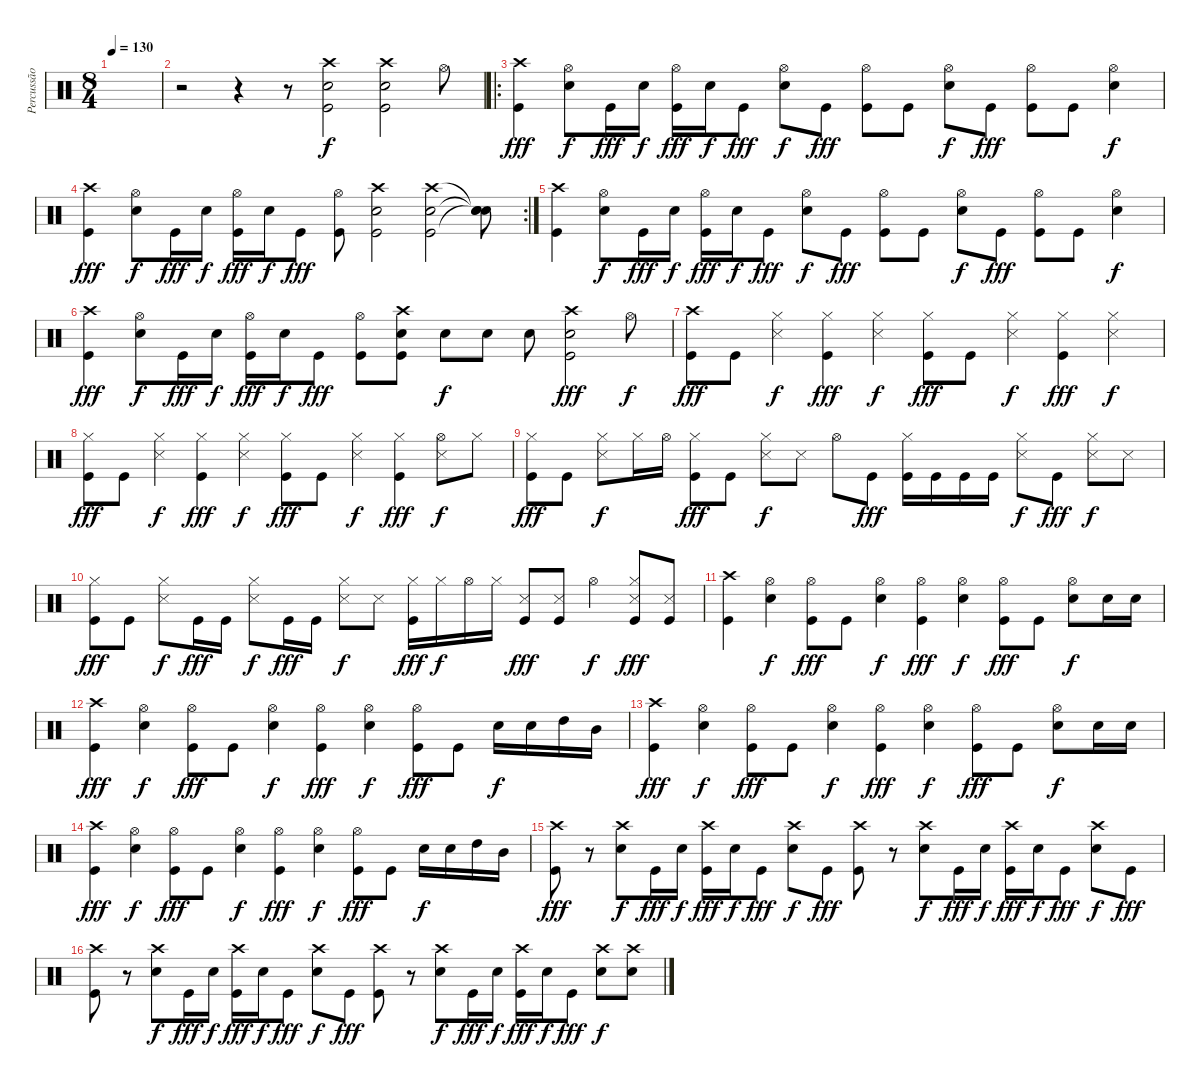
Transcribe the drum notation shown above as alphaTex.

\track ("Percussão" "Percussão") {instrument percussion}
\staff {score}
\articulation defaults
\ts (8 4)
\tempo 130
\clef neutral
\ks c
|
r.2 r.4 r.8 ("Crash high (hit)" "Electric Snare (hit)" "Kick (hit)").2 ("Crash high (hit)" "Electric Snare (hit)" "Kick (hit)").2 "Hi-Hat (open)".8{dy f} |
\ro
("Crash high (hit)" "Kick (hit)").4{dy fff} ("Hi-Hat (open)" "Electric Snare (hit)").8{dy f} "Kick (hit)".16{dy fff} "Electric Snare (hit)".16{dy f} ("Hi-Hat (open)" "Kick (hit)").16{dy fff} "Electric Snare (hit)".16{dy f} "Kick (hit)".8{dy fff} ("Hi-Hat (open)" "Electric Snare (hit)").8{dy f} "Kick (hit)".8{dy fff} ("Hi-Hat (open)" "Kick (hit)").8 "Kick (hit)".8 ("Hi-Hat (open)" "Electric Snare (hit)").8{dy f} "Kick (hit)".8{dy fff} ("Hi-Hat (open)" "Kick (hit)").8 "Kick (hit)".8 ("Hi-Hat (open)" "Electric Snare (hit)").4{dy f} |
\rc 2
("Crash high (hit)" "Kick (hit)").4{dy fff} ("Hi-Hat (open)" "Electric Snare (hit)").8{dy f} "Kick (hit)".16{dy fff} "Electric Snare (hit)".16{dy f} ("Hi-Hat (open)" "Kick (hit)").16{dy fff} "Electric Snare (hit)".16{dy f} "Kick (hit)".8{dy fff} ("Hi-Hat (open)" "Kick (hit)").8 ("Crash high (hit)" "Electric Snare (hit)" "Kick (hit)").2 ("Crash high (hit)" "Electric Snare (hit)" "Kick (hit)").2 ("Snare (hit)"{t} "Snare (hit)"{t} "Snare (hit)"{t}).8 |
("Crash high (hit)" "Kick (hit)").4 ("Hi-Hat (open)" "Electric Snare (hit)").8{dy f} "Kick (hit)".16{dy fff} "Electric Snare (hit)".16{dy f} ("Hi-Hat (open)" "Kick (hit)").16{dy fff} "Electric Snare (hit)".16{dy f} "Kick (hit)".8{dy fff} ("Hi-Hat (open)" "Electric Snare (hit)").8{dy f} "Kick (hit)".8{dy fff} ("Hi-Hat (open)" "Kick (hit)").8 "Kick (hit)".8 ("Hi-Hat (open)" "Electric Snare (hit)").8{dy f} "Kick (hit)".8{dy fff} ("Hi-Hat (open)" "Kick (hit)").8 "Kick (hit)".8 ("Hi-Hat (open)" "Electric Snare (hit)").4{dy f} |
("Crash high (hit)" "Kick (hit)").4{dy fff} ("Hi-Hat (open)" "Electric Snare (hit)").8{dy f} "Kick (hit)".16{dy fff} "Electric Snare (hit)".16{dy f} ("Hi-Hat (open)" "Kick (hit)").16{dy fff} "Electric Snare (hit)".16{dy f} "Kick (hit)".8{dy fff} ("Hi-Hat (open)" "Kick (hit)").8 ("Crash high (hit)" "Electric Snare (hit)" "Kick (hit)").8 "Electric Snare (hit)".8{dy f} "Electric Snare (hit)".8 "Electric Snare (hit)".8 ("Crash high (hit)" "Electric Snare (hit)" "Kick (hit)").2{dy fff} "Hi-Hat (open)".8{dy f} |
("Crash high (hit)" "Kick (hit)").8{dy fff} "Kick (hit)".8 ("Hi-Hat (closed)" "Snare (side stick) 3").4{dy f} ("Hi-Hat (closed)" "Kick (hit)").4{dy fff} ("Hi-Hat (closed)" "Snare (side stick) 3").4{dy f} ("Hi-Hat (closed)" "Kick (hit)").8{dy fff} "Kick (hit)".8 ("Hi-Hat (closed)" "Snare (side stick) 3").4{dy f} ("Hi-Hat (closed)" "Kick (hit)").4{dy fff} ("Hi-Hat (closed)" "Snare (side stick) 3").4{dy f} |
("Hi-Hat (closed)" "Kick (hit)").8{dy fff} "Kick (hit)".8 ("Hi-Hat (closed)" "Snare (side stick) 3").4{dy f} ("Hi-Hat (closed)" "Kick (hit)").4{dy fff} ("Hi-Hat (closed)" "Snare (side stick) 3").4{dy f} ("Hi-Hat (closed)" "Kick (hit)").8{dy fff} "Kick (hit)".8 ("Hi-Hat (closed)" "Snare (side stick) 3").4{dy f} ("Hi-Hat (closed)" "Kick (hit)").4{dy fff} ("Hi-Hat (open)" "Snare (side stick) 3").8{dy f} "Hi-Hat (closed)".8 |
("Hi-Hat (closed)" "Kick (hit)").8{dy fff} "Kick (hit)".8 ("Hi-Hat (closed)" "Snare (side stick) 3").8{dy f} "Hi-Hat (closed)".16 "Hi-Hat (open)".16 ("Hi-Hat (closed)" "Kick (hit)").8{dy fff} "Kick (hit)".8 ("Hi-Hat (closed)" "Snare (side stick) 3").8{dy f} "Snare (side stick) 3".8 "Hi-Hat (open)".8 "Kick (hit)".8{dy fff} ("Hi-Hat (closed)" "Kick (hit)").16 "Kick (hit)".16 "Kick (hit)".16 "Kick (hit)".16 ("Hi-Hat (closed)" "Snare (side stick) 3").8{dy f} "Kick (hit)".8{dy fff} ("Hi-Hat (closed)" "Snare (side stick) 3").8{dy f} "Snare (side stick) 3".8 |
("Hi-Hat (closed)" "Kick (hit)").8{dy fff} "Kick (hit)".8 ("Hi-Hat (closed)" "Snare (side stick) 3").8{dy f} "Kick (hit)".16{dy fff} "Kick (hit)".16 ("Hi-Hat (closed)" "Snare (side stick) 3").8{dy f} "Kick (hit)".16{dy fff} "Kick (hit)".16 ("Hi-Hat (closed)" "Snare (side stick) 3").8{dy f} "Snare (side stick) 3".8 ("Hi-Hat (closed)" "Kick (hit)").16{dy fff} "Hi-Hat (closed)".16{dy f} "Hi-Hat (open)".16 "Hi-Hat (closed)".16 ("Snare (side stick) 3" "Kick (hit)").8{dy fff} ("Snare (side stick) 3" "Kick (hit)").8 "Hi-Hat (open)".4{dy f} ("Hi-Hat (closed)" "Snare (side stick) 3" "Kick (hit)").8{dy fff} ("Snare (side stick) 3" "Kick (hit)").8 |
("Crash high (hit)" "Kick (hit)").4 ("Hi-Hat (open)" "Electric Snare (hit)").4{dy f} ("Hi-Hat (open)" "Kick (hit)").8{dy fff} "Kick (hit)".8 ("Hi-Hat (open)" "Electric Snare (hit)").4{dy f} ("Hi-Hat (open)" "Kick (hit)").4{dy fff} ("Hi-Hat (open)" "Electric Snare (hit)").4{dy f} ("Hi-Hat (open)" "Kick (hit)").8{dy fff} "Kick (hit)".8 ("Hi-Hat (open)" "Electric Snare (hit)").8{dy f} "Electric Snare (hit)".16 "Electric Snare (hit)".16 |
("Crash high (hit)" "Kick (hit)").4{dy fff} ("Hi-Hat (open)" "Electric Snare (hit)").4{dy f} ("Hi-Hat (open)" "Kick (hit)").8{dy fff} "Kick (hit)".8 ("Hi-Hat (open)" "Electric Snare (hit)").4{dy f} ("Hi-Hat (open)" "Kick (hit)").4{dy fff} ("Hi-Hat (open)" "Electric Snare (hit)").4{dy f} ("Hi-Hat (open)" "Kick (hit)").8{dy fff} "Kick (hit)".8 "Electric Snare (hit)".16{dy f} "Electric Snare (hit)".16 "High Tom (hit)".16 "Mid Tom (hit)".16 |
("Crash high (hit)" "Kick (hit)").4{dy fff} ("Hi-Hat (open)" "Electric Snare (hit)").4{dy f} ("Hi-Hat (open)" "Kick (hit)").8{dy fff} "Kick (hit)".8 ("Hi-Hat (open)" "Electric Snare (hit)").4{dy f} ("Hi-Hat (open)" "Kick (hit)").4{dy fff} ("Hi-Hat (open)" "Electric Snare (hit)").4{dy f} ("Hi-Hat (open)" "Kick (hit)").8{dy fff} "Kick (hit)".8 ("Hi-Hat (open)" "Electric Snare (hit)").8{dy f} "Electric Snare (hit)".16 "Electric Snare (hit)".16 |
("Crash high (hit)" "Kick (hit)").4{dy fff} ("Hi-Hat (open)" "Electric Snare (hit)").4{dy f} ("Hi-Hat (open)" "Kick (hit)").8{dy fff} "Kick (hit)".8 ("Hi-Hat (open)" "Electric Snare (hit)").4{dy f} ("Hi-Hat (open)" "Kick (hit)").4{dy fff} ("Hi-Hat (open)" "Electric Snare (hit)").4{dy f} ("Hi-Hat (open)" "Kick (hit)").8{dy fff} "Kick (hit)".8 "Electric Snare (hit)".16{dy f} "Electric Snare (hit)".16 "High Tom (hit)".16 "Mid Tom (hit)".16 |
("Crash high (hit)" "Kick (hit)").8{dy fff} r.8 ("Crash high (hit)" "Electric Snare (hit)").8{dy f} "Kick (hit)".16{dy fff} "Electric Snare (hit)".16{dy f} ("Crash high (hit)" "Kick (hit)").16{dy fff} "Electric Snare (hit)".16{dy f} "Kick (hit)".8{dy fff} ("Crash high (hit)" "Electric Snare (hit)").8{dy f} "Kick (hit)".8{dy fff} ("Crash high (hit)" "Kick (hit)").8 r.8 ("Crash high (hit)" "Electric Snare (hit)").8{dy f} "Kick (hit)".16{dy fff} "Electric Snare (hit)".16{dy f} ("Crash high (hit)" "Kick (hit)").16{dy fff} "Electric Snare (hit)".16{dy f} "Kick (hit)".8{dy fff} ("Crash high (hit)" "Electric Snare (hit)").8{dy f} "Kick (hit)".8{dy fff} |
("Crash high (hit)" "Kick (hit)").8 r.8 ("Crash high (hit)" "Electric Snare (hit)").8{dy f} "Kick (hit)".16{dy fff} "Electric Snare (hit)".16{dy f} ("Crash high (hit)" "Kick (hit)").16{dy fff} "Electric Snare (hit)".16{dy f} "Kick (hit)".8{dy fff} ("Crash high (hit)" "Electric Snare (hit)").8{dy f} "Kick (hit)".8{dy fff} ("Crash high (hit)" "Kick (hit)").8 r.8 ("Crash high (hit)" "Electric Snare (hit)").8{dy f} "Kick (hit)".16{dy fff} "Electric Snare (hit)".16{dy f} ("Crash high (hit)" "Kick (hit)").16{dy fff} "Electric Snare (hit)".16{dy f} "Kick (hit)".8{dy fff} ("Crash high (hit)" "Electric Snare (hit)").8{dy f} ("Crash high (hit)" "Electric Snare (hit)").8
